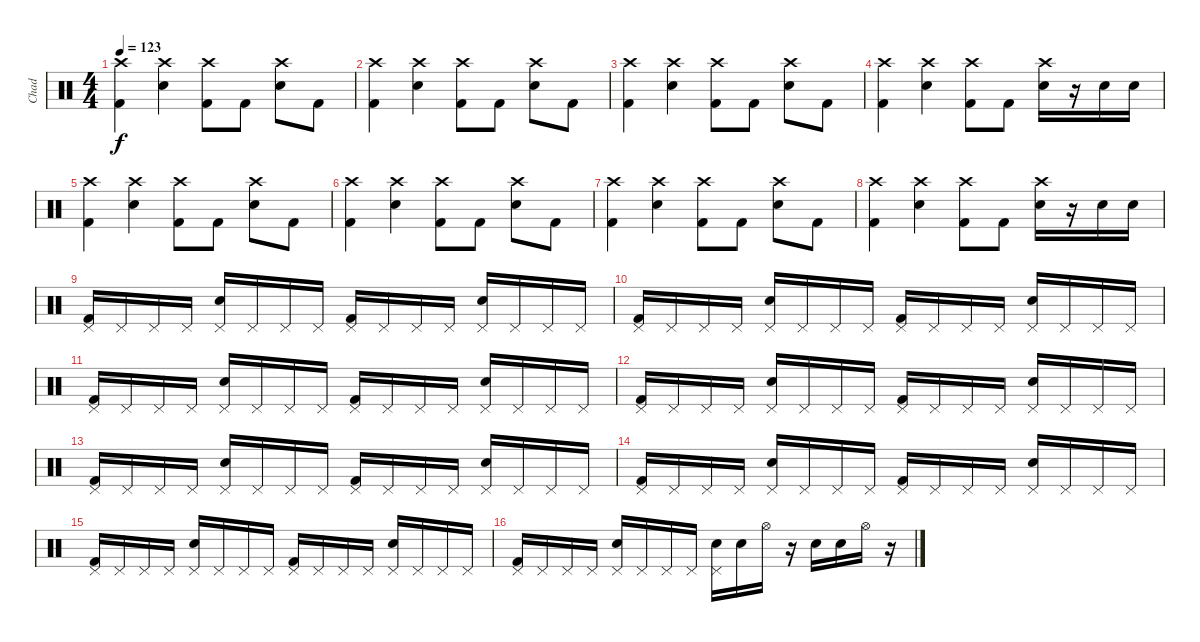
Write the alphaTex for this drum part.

\track ("Chad" "Chad") {instrument percussion}
\staff {score}
\articulation defaults
\ts (4 4)
\tempo 123
\clef neutral
\ks c
("Crash high (hit)" "Kick (hit) 2").4{dy f} ("Crash high (hit)" "Electric Snare (hit)").4 ("Crash high (hit)" "Kick (hit) 2").8 "Kick (hit) 2".8 ("Crash high (hit)" "Electric Snare (hit)").8 "Kick (hit) 2".8 |
("Crash high (hit)" "Kick (hit) 2").4 ("Crash high (hit)" "Electric Snare (hit)").4 ("Crash high (hit)" "Kick (hit) 2").8 "Kick (hit) 2".8 ("Crash high (hit)" "Electric Snare (hit)").8 "Kick (hit) 2".8 |
("Crash high (hit)" "Kick (hit) 2").4 ("Crash high (hit)" "Electric Snare (hit)").4 ("Crash high (hit)" "Kick (hit) 2").8 "Kick (hit) 2".8 ("Crash high (hit)" "Electric Snare (hit)").8 "Kick (hit) 2".8 |
("Crash high (hit)" "Kick (hit) 2").4 ("Crash high (hit)" "Electric Snare (hit)").4 ("Crash high (hit)" "Kick (hit) 2").8 "Kick (hit) 2".8 ("Crash high (hit)" "Electric Snare (hit)").16 r.16 "Electric Snare (hit)".16 "Electric Snare (hit)".16 |
("Crash high (hit)" "Kick (hit) 2").4 ("Crash high (hit)" "Electric Snare (hit)").4 ("Crash high (hit)" "Kick (hit) 2").8 "Kick (hit) 2".8 ("Crash high (hit)" "Electric Snare (hit)").8 "Kick (hit) 2".8 |
("Crash high (hit)" "Kick (hit) 2").4 ("Crash high (hit)" "Electric Snare (hit)").4 ("Crash high (hit)" "Kick (hit) 2").8 "Kick (hit) 2".8 ("Crash high (hit)" "Electric Snare (hit)").8 "Kick (hit) 2".8 |
("Crash high (hit)" "Kick (hit) 2").4 ("Crash high (hit)" "Electric Snare (hit)").4 ("Crash high (hit)" "Kick (hit) 2").8 "Kick (hit) 2".8 ("Crash high (hit)" "Electric Snare (hit)").8 "Kick (hit) 2".8 |
("Crash high (hit)" "Kick (hit) 2").4 ("Crash high (hit)" "Electric Snare (hit)").4 ("Crash high (hit)" "Kick (hit) 2").8 "Kick (hit) 2".8 ("Crash high (hit)" "Electric Snare (hit)").16 r.16 "Electric Snare (hit)".16 "Electric Snare (hit)".16 |
("Pedal Hi-Hat (hit)" "Kick (hit) 2").16 "Pedal Hi-Hat (hit)".16 "Pedal Hi-Hat (hit)".16 "Pedal Hi-Hat (hit)".16 ("Pedal Hi-Hat (hit)" "Electric Snare (hit)").16 "Pedal Hi-Hat (hit)".16 "Pedal Hi-Hat (hit)".16 "Pedal Hi-Hat (hit)".16 ("Pedal Hi-Hat (hit)" "Kick (hit) 2").16 "Pedal Hi-Hat (hit)".16 "Pedal Hi-Hat (hit)".16 "Pedal Hi-Hat (hit)".16 ("Pedal Hi-Hat (hit)" "Electric Snare (hit)").16 "Pedal Hi-Hat (hit)".16 "Pedal Hi-Hat (hit)".16 "Pedal Hi-Hat (hit)".16 |
("Pedal Hi-Hat (hit)" "Kick (hit) 2").16 "Pedal Hi-Hat (hit)".16 "Pedal Hi-Hat (hit)".16 "Pedal Hi-Hat (hit)".16 ("Pedal Hi-Hat (hit)" "Electric Snare (hit)").16 "Pedal Hi-Hat (hit)".16 "Pedal Hi-Hat (hit)".16 "Pedal Hi-Hat (hit)".16 ("Pedal Hi-Hat (hit)" "Kick (hit) 2").16 "Pedal Hi-Hat (hit)".16 "Pedal Hi-Hat (hit)".16 "Pedal Hi-Hat (hit)".16 ("Pedal Hi-Hat (hit)" "Electric Snare (hit)").16 "Pedal Hi-Hat (hit)".16 "Pedal Hi-Hat (hit)".16 "Pedal Hi-Hat (hit)".16 |
("Pedal Hi-Hat (hit)" "Kick (hit) 2").16 "Pedal Hi-Hat (hit)".16 "Pedal Hi-Hat (hit)".16 "Pedal Hi-Hat (hit)".16 ("Pedal Hi-Hat (hit)" "Electric Snare (hit)").16 "Pedal Hi-Hat (hit)".16 "Pedal Hi-Hat (hit)".16 "Pedal Hi-Hat (hit)".16 ("Pedal Hi-Hat (hit)" "Kick (hit) 2").16 "Pedal Hi-Hat (hit)".16 "Pedal Hi-Hat (hit)".16 "Pedal Hi-Hat (hit)".16 ("Pedal Hi-Hat (hit)" "Electric Snare (hit)").16 "Pedal Hi-Hat (hit)".16 "Pedal Hi-Hat (hit)".16 "Pedal Hi-Hat (hit)".16 |
("Pedal Hi-Hat (hit)" "Kick (hit) 2").16 "Pedal Hi-Hat (hit)".16 "Pedal Hi-Hat (hit)".16 "Pedal Hi-Hat (hit)".16 ("Pedal Hi-Hat (hit)" "Electric Snare (hit)").16 "Pedal Hi-Hat (hit)".16 "Pedal Hi-Hat (hit)".16 "Pedal Hi-Hat (hit)".16 ("Pedal Hi-Hat (hit)" "Kick (hit) 2").16 "Pedal Hi-Hat (hit)".16 "Pedal Hi-Hat (hit)".16 "Pedal Hi-Hat (hit)".16 ("Pedal Hi-Hat (hit)" "Electric Snare (hit)").16 "Pedal Hi-Hat (hit)".16 "Pedal Hi-Hat (hit)".16 "Pedal Hi-Hat (hit)".16 |
("Pedal Hi-Hat (hit)" "Kick (hit) 2").16 "Pedal Hi-Hat (hit)".16 "Pedal Hi-Hat (hit)".16 "Pedal Hi-Hat (hit)".16 ("Pedal Hi-Hat (hit)" "Electric Snare (hit)").16 "Pedal Hi-Hat (hit)".16 "Pedal Hi-Hat (hit)".16 "Pedal Hi-Hat (hit)".16 ("Pedal Hi-Hat (hit)" "Kick (hit) 2").16 "Pedal Hi-Hat (hit)".16 "Pedal Hi-Hat (hit)".16 "Pedal Hi-Hat (hit)".16 ("Pedal Hi-Hat (hit)" "Electric Snare (hit)").16 "Pedal Hi-Hat (hit)".16 "Pedal Hi-Hat (hit)".16 "Pedal Hi-Hat (hit)".16 |
("Pedal Hi-Hat (hit)" "Kick (hit) 2").16 "Pedal Hi-Hat (hit)".16 "Pedal Hi-Hat (hit)".16 "Pedal Hi-Hat (hit)".16 ("Pedal Hi-Hat (hit)" "Electric Snare (hit)").16 "Pedal Hi-Hat (hit)".16 "Pedal Hi-Hat (hit)".16 "Pedal Hi-Hat (hit)".16 ("Pedal Hi-Hat (hit)" "Kick (hit) 2").16 "Pedal Hi-Hat (hit)".16 "Pedal Hi-Hat (hit)".16 "Pedal Hi-Hat (hit)".16 ("Pedal Hi-Hat (hit)" "Electric Snare (hit)").16 "Pedal Hi-Hat (hit)".16 "Pedal Hi-Hat (hit)".16 "Pedal Hi-Hat (hit)".16 |
("Pedal Hi-Hat (hit)" "Kick (hit) 2").16 "Pedal Hi-Hat (hit)".16 "Pedal Hi-Hat (hit)".16 "Pedal Hi-Hat (hit)".16 ("Pedal Hi-Hat (hit)" "Electric Snare (hit)").16 "Pedal Hi-Hat (hit)".16 "Pedal Hi-Hat (hit)".16 "Pedal Hi-Hat (hit)".16 ("Pedal Hi-Hat (hit)" "Kick (hit) 2").16 "Pedal Hi-Hat (hit)".16 "Pedal Hi-Hat (hit)".16 "Pedal Hi-Hat (hit)".16 ("Pedal Hi-Hat (hit)" "Electric Snare (hit)").16 "Pedal Hi-Hat (hit)".16 "Pedal Hi-Hat (hit)".16 "Pedal Hi-Hat (hit)".16 |
("Pedal Hi-Hat (hit)" "Kick (hit) 2").16 "Pedal Hi-Hat (hit)".16 "Pedal Hi-Hat (hit)".16 "Pedal Hi-Hat (hit)".16 ("Pedal Hi-Hat (hit)" "Electric Snare (hit)").16 "Pedal Hi-Hat (hit)".16 "Pedal Hi-Hat (hit)".16 "Pedal Hi-Hat (hit)".16 ("Pedal Hi-Hat (hit)" "Electric Snare (hit)").16 "Electric Snare (hit)".16 "Hi-Hat (open)".16 r.16 "Electric Snare (hit)".16 "Electric Snare (hit)".16 "Hi-Hat (open)".16 r.16
